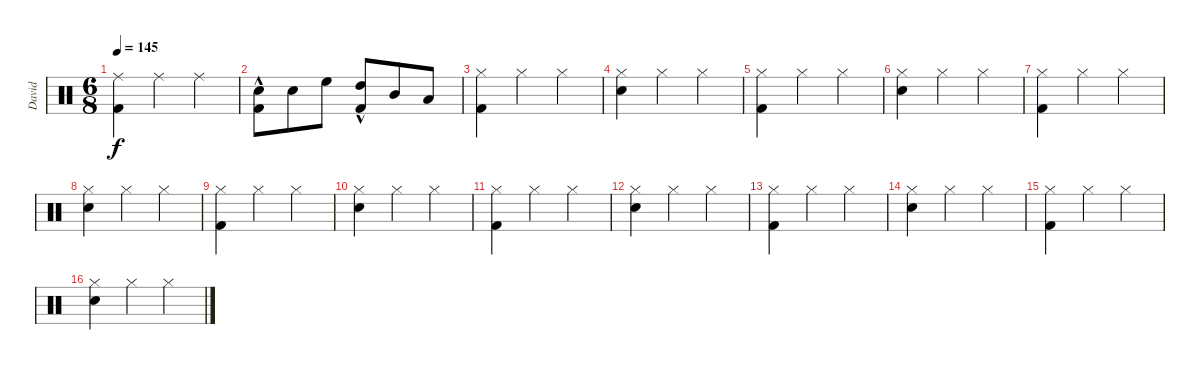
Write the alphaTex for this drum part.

\track ("David" "David") {instrument percussion}
\staff {score}
\articulation defaults
\ts (6 8)
\tempo 145
\clef neutral
\ks c
("Ride (middle)" "Kick (hit) 2").4{dy f} "Ride (middle)".4 "Ride (middle)".4 |
("Electric Snare (hit)" "Kick (hit) 2"{hac}).8 "Electric Snare (hit)".8 "High Floor Tom (hit)".8 ("High Tom (hit)" "Kick (hit) 2"{hac}).8 "Mid Tom (hit)".8 "Low Tom (hit)".8 |
("Hi-Hat (closed)" "Kick (hit) 2").4 "Hi-Hat (closed)".4 "Hi-Hat (closed)".4 |
("Hi-Hat (closed)" "Electric Snare (hit)").4 "Hi-Hat (closed)".4 "Hi-Hat (closed)".4 |
("Hi-Hat (closed)" "Kick (hit) 2").4 "Hi-Hat (closed)".4 "Hi-Hat (closed)".4 |
("Hi-Hat (closed)" "Electric Snare (hit)").4 "Hi-Hat (closed)".4 "Hi-Hat (closed)".4 |
("Hi-Hat (closed)" "Kick (hit) 2").4 "Hi-Hat (closed)".4 "Hi-Hat (closed)".4 |
("Hi-Hat (closed)" "Electric Snare (hit)").4 "Hi-Hat (closed)".4 "Hi-Hat (closed)".4 |
("Hi-Hat (closed)" "Kick (hit) 2").4 "Hi-Hat (closed)".4 "Hi-Hat (closed)".4 |
("Hi-Hat (closed)" "Electric Snare (hit)").4 "Hi-Hat (closed)".4 "Hi-Hat (closed)".4 |
("Hi-Hat (closed)" "Kick (hit) 2").4 "Hi-Hat (closed)".4 "Hi-Hat (closed)".4 |
("Hi-Hat (closed)" "Electric Snare (hit)").4 "Hi-Hat (closed)".4 "Hi-Hat (closed)".4 |
("Hi-Hat (closed)" "Kick (hit) 2").4 "Hi-Hat (closed)".4 "Hi-Hat (closed)".4 |
("Hi-Hat (closed)" "Electric Snare (hit)").4 "Hi-Hat (closed)".4 "Hi-Hat (closed)".4 |
("Hi-Hat (closed)" "Kick (hit) 2").4 "Hi-Hat (closed)".4 "Hi-Hat (closed)".4 |
("Hi-Hat (closed)" "Electric Snare (hit)").4 "Hi-Hat (closed)".4 "Hi-Hat (closed)".4
